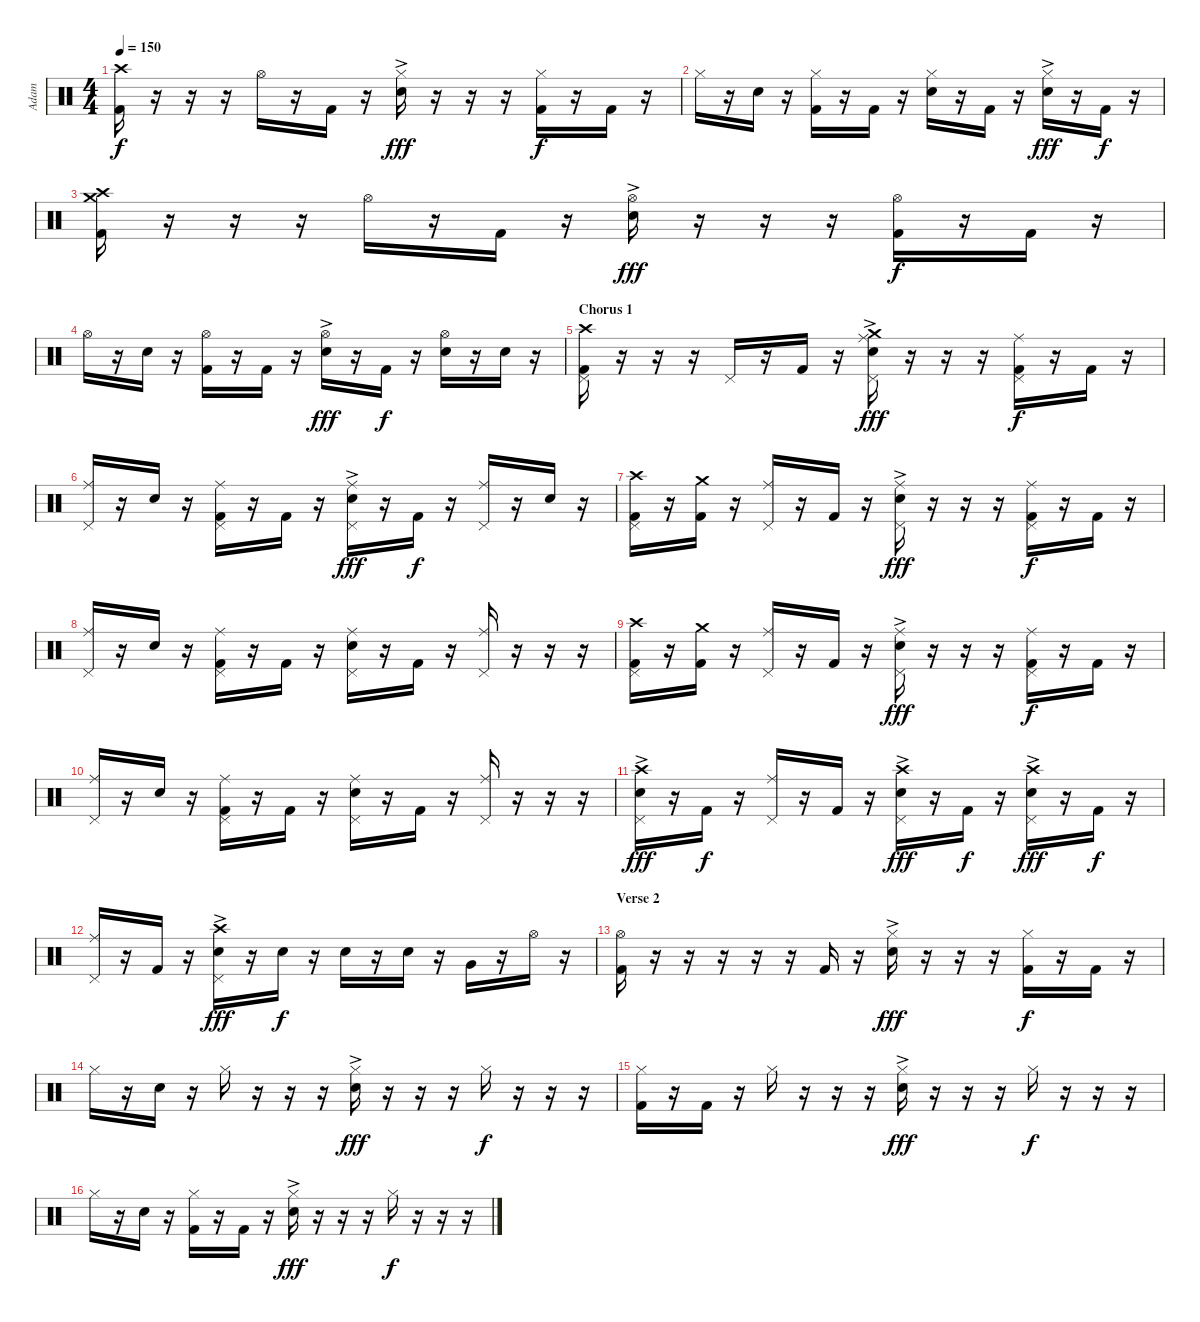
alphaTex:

\track ("Adam" "Adam") {instrument percussion}
\staff {score}
\articulation defaults
\ts (4 4)
\tempo 150
\clef neutral
\ks c
("Crash high (hit)" "Kick (hit) 2").16{dy f} r.16 r.16 r.16 "Hi-Hat (open)".16 r.16 "Kick (hit) 2".16 r.16 ("Hi-Hat (closed)" "Electric Snare (hit)"{ac}).16{dy fff} r.16 r.16 r.16 ("Hi-Hat (closed)" "Kick (hit) 2").16{dy f} r.16 "Kick (hit) 2".16 r.16 |
"Hi-Hat (closed)".16 r.16 "Electric Snare (hit)".16 r.16 ("Hi-Hat (closed)" "Kick (hit) 2").16 r.16 "Kick (hit) 2".16 r.16 ("Hi-Hat (closed)" "Electric Snare (hit)").16 r.16 "Kick (hit) 2".16 r.16 ("Hi-Hat (closed)" "Electric Snare (hit)"{ac}).16{dy fff} r.16 "Kick (hit) 2".16{dy f} r.16 |
("Crash medium (hit)" "Crash high (hit)" "Kick (hit) 2").16 r.16 r.16 r.16 "Hi-Hat (open)".16 r.16 "Kick (hit) 2".16 r.16 ("Hi-Hat (open)" "Electric Snare (hit)"{ac}).16{dy fff} r.16 r.16 r.16 ("Hi-Hat (open)" "Kick (hit) 2").16{dy f} r.16 "Kick (hit) 2".16 r.16 |
"Hi-Hat (open)".16 r.16 "Electric Snare (hit)".16 r.16 ("Hi-Hat (open)" "Kick (hit) 2").16 r.16 "Kick (hit) 2".16 r.16 ("Hi-Hat (open)" "Electric Snare (hit)"{ac}).16{dy fff} r.16 "Kick (hit) 2".16{dy f} r.16 ("Hi-Hat (open)" "Electric Snare (hit)").16 r.16 "Electric Snare (hit)".16 r.16 |
\section ("" "Chorus 1")
("Crash high (hit)" "Pedal Hi-Hat (hit)" "Kick (hit) 2").16 r.16 r.16 r.16 "Pedal Hi-Hat (hit)".16 r.16 "Kick (hit) 2".16 r.16 ("Crash medium (hit)" "Pedal Hi-Hat (hit)" "Electric Snare (hit)"{ac} "Ride (middle)").16{dy fff} r.16 r.16 r.16 ("Pedal Hi-Hat (hit)" "Ride (middle)" "Kick (hit) 2").16{dy f} r.16 "Kick (hit) 2".16 r.16 |
("Pedal Hi-Hat (hit)" "Ride (middle)").16 r.16 "Electric Snare (hit)".16 r.16 ("Pedal Hi-Hat (hit)" "Ride (middle)" "Kick (hit) 2").16 r.16 "Kick (hit) 2".16 r.16 ("Pedal Hi-Hat (hit)" "Electric Snare (hit)"{ac} "Ride (middle)").16{dy fff} r.16 "Kick (hit) 2".16{dy f} r.16 ("Pedal Hi-Hat (hit)" "Ride (middle)").16 r.16 "Electric Snare (hit)".16 r.16 |
("Crash high (hit)" "Pedal Hi-Hat (hit)" "Kick (hit) 2").16 r.16 ("Crash medium (hit)" "Kick (hit) 2").16 r.16 ("Pedal Hi-Hat (hit)" "Ride (middle)").16 r.16 "Kick (hit) 2".16 r.16 ("Pedal Hi-Hat (hit)" "Ride (middle)" "Electric Snare (hit)"{ac}).16{dy fff} r.16 r.16 r.16 ("Pedal Hi-Hat (hit)" "Ride (middle)" "Kick (hit) 2").16{dy f} r.16 "Kick (hit) 2".16 r.16 |
("Pedal Hi-Hat (hit)" "Ride (middle)").16 r.16 "Electric Snare (hit)".16 r.16 ("Pedal Hi-Hat (hit)" "Ride (middle)" "Kick (hit) 2").16 r.16 "Kick (hit) 2".16 r.16 ("Pedal Hi-Hat (hit)" "Ride (middle)" "Electric Snare (hit)").16 r.16 "Kick (hit) 2".16 r.16 ("Pedal Hi-Hat (hit)" "Ride (middle)").16 r.16 r.16 r.16 |
("Crash high (hit)" "Pedal Hi-Hat (hit)" "Kick (hit) 2").16 r.16 ("Crash medium (hit)" "Kick (hit) 2").16 r.16 ("Pedal Hi-Hat (hit)" "Ride (middle)").16 r.16 "Kick (hit) 2".16 r.16 ("Pedal Hi-Hat (hit)" "Ride (middle)" "Electric Snare (hit)"{ac}).16{dy fff} r.16 r.16 r.16 ("Pedal Hi-Hat (hit)" "Ride (middle)" "Kick (hit) 2").16{dy f} r.16 "Kick (hit) 2".16 r.16 |
("Pedal Hi-Hat (hit)" "Ride (middle)").16 r.16 "Electric Snare (hit)".16 r.16 ("Pedal Hi-Hat (hit)" "Ride (middle)" "Kick (hit) 2").16 r.16 "Kick (hit) 2".16 r.16 ("Pedal Hi-Hat (hit)" "Ride (middle)" "Electric Snare (hit)").16 r.16 "Kick (hit) 2".16 r.16 ("Pedal Hi-Hat (hit)" "Ride (middle)").16 r.16 r.16 r.16 |
("Crash high (hit)" "Pedal Hi-Hat (hit)" "Electric Snare (hit)"{ac}).16{dy fff} r.16 "Kick (hit) 2".16{dy f} r.16 ("Ride (middle)" "Pedal Hi-Hat (hit)").16 r.16 "Kick (hit) 2".16 r.16 ("Crash high (hit)" "Pedal Hi-Hat (hit)" "Electric Snare (hit)"{ac}).16{dy fff} r.16 "Kick (hit) 2".16{dy f} r.16 ("Crash high (hit)" "Pedal Hi-Hat (hit)" "Electric Snare (hit)"{ac}).16{dy fff} r.16 "Kick (hit) 2".16{dy f} r.16 |
("Ride (middle)" "Pedal Hi-Hat (hit)").16 r.16 "Kick (hit) 2".16 r.16 ("Crash high (hit)" "Pedal Hi-Hat (hit)" "Electric Snare (hit)"{ac}).16{dy fff} r.16 "Electric Snare (hit)".16{dy f} r.16 "Electric Snare (hit)".16 r.16 "Electric Snare (hit)".16 r.16 "Very Low Tom (hit)".16 r.16 "Hi-Hat (open)".16 r.16 |
\section ("" "Verse 2")
("Hi-Hat (open)" "Kick (hit) 2").16 r.16 r.16 r.16 r.16 r.16 "Kick (hit) 2".16 r.16 ("Hi-Hat (closed)" "Electric Snare (hit)"{ac}).16{dy fff} r.16 r.16 r.16 ("Hi-Hat (closed)" "Kick (hit) 2").16{dy f} r.16 "Kick (hit) 2".16 r.16 |
"Hi-Hat (closed)".16 r.16 "Electric Snare (hit)".16 r.16 "Hi-Hat (closed)".16 r.16 r.16 r.16 ("Hi-Hat (closed)" "Electric Snare (hit)"{ac}).16{dy fff} r.16 r.16 r.16 "Hi-Hat (closed)".16{dy f} r.16 r.16 r.16 |
("Hi-Hat (closed)" "Kick (hit) 2").16 r.16 "Kick (hit) 2".16 r.16 "Hi-Hat (closed)".16 r.16 r.16 r.16 ("Hi-Hat (closed)" "Electric Snare (hit)"{ac}).16{dy fff} r.16 r.16 r.16 "Hi-Hat (closed)".16{dy f} r.16 r.16 r.16 |
"Hi-Hat (closed)".16 r.16 "Electric Snare (hit)".16 r.16 ("Hi-Hat (closed)" "Kick (hit) 2").16 r.16 "Kick (hit) 2".16 r.16 ("Hi-Hat (closed)" "Electric Snare (hit)"{ac}).16{dy fff} r.16 r.16 r.16 "Hi-Hat (closed)".16{dy f} r.16 r.16 r.16
